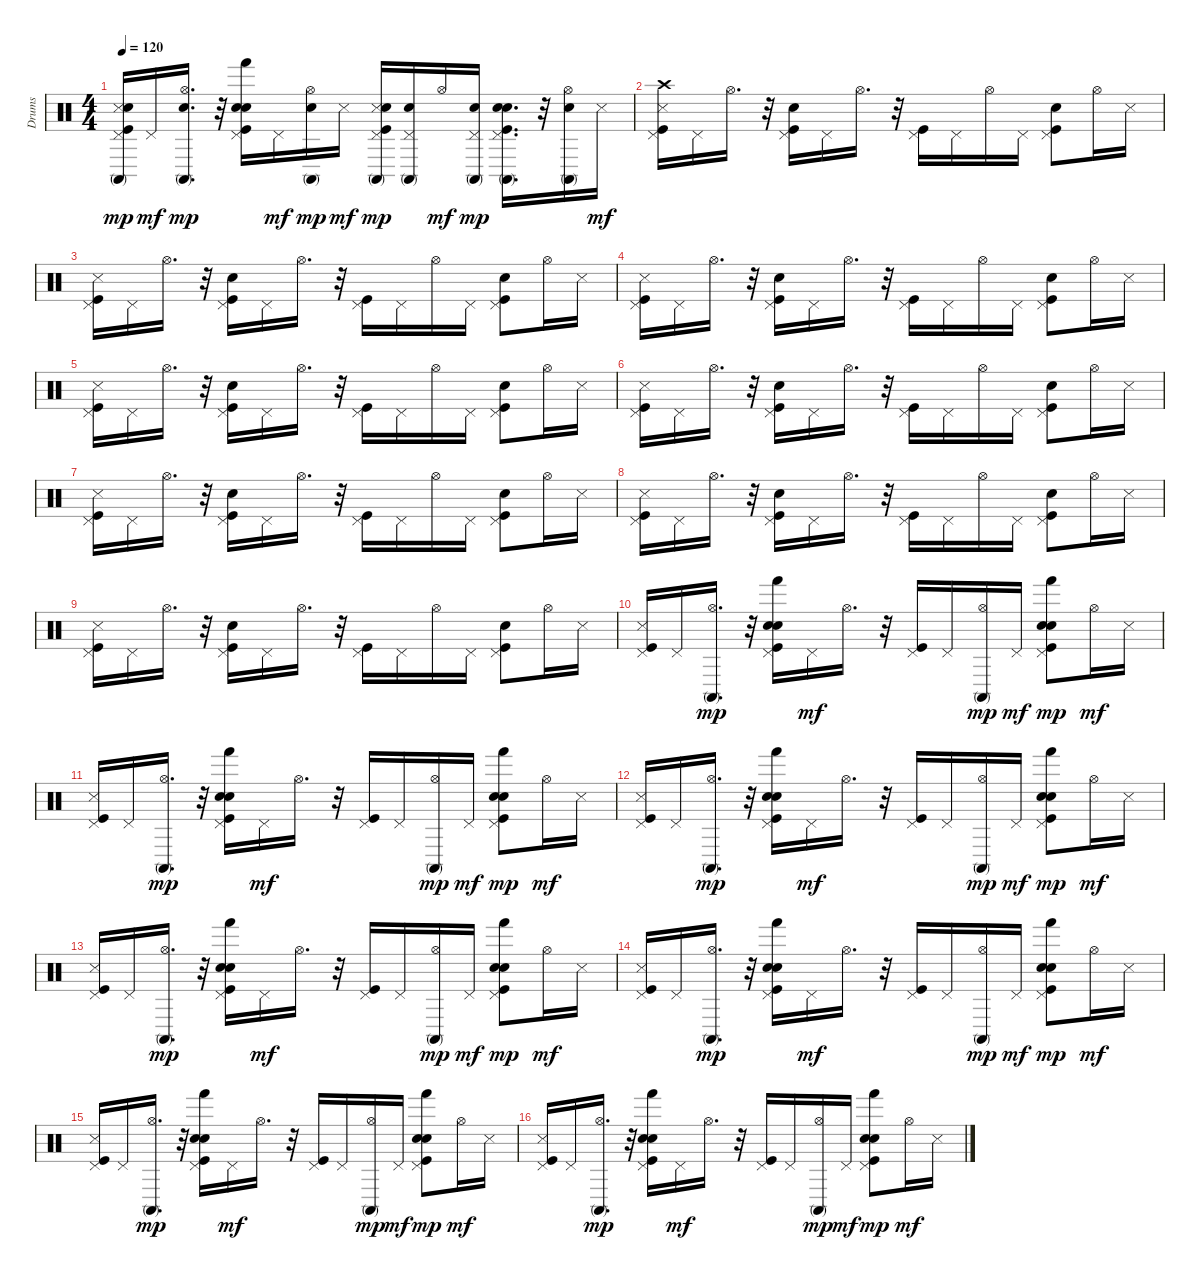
\track ("Drums" "Drums") {instrument percussion}
\staff {score}
\articulation defaults
\ts (4 4)
\tempo 120
\clef neutral
\ks c
("Snare (side stick) 3" "Pedal Hi-Hat (hit)" "Kick (hit)" "Snare (hit) 2" "Conga high (mute)").16{dy mp} "Pedal Hi-Hat (hit)".16{dy mf} ("Hi-Hat (open)" "Snare (hit) 2" "Conga high (mute)").16{d dy mp} r.32 ("Hand Clap (hit)" "Pedal Hi-Hat (hit)" "Kick (hit)" "Snare (hit) 2" "Hand (hit)").16 "Pedal Hi-Hat (hit)".16{dy mf} ("Hi-Hat (open)" "Snare (hit) 2" "Conga high (mute)").16{dy mp} "Snare (side stick) 3".16{dy mf} ("Snare (side stick) 3" "Pedal Hi-Hat (hit)" "Kick (hit)" "Snare (hit) 2" "Conga high (mute)").16{dy mp} ("Pedal Hi-Hat (hit)" "Snare (hit) 2" "Conga high (mute)").16 "Hi-Hat (open)".16{dy mf} ("Pedal Hi-Hat (hit)" "Snare (hit) 2" "Conga high (mute)").16{dy mp} ("Hand Clap (hit)" "Pedal Hi-Hat (hit)" "Kick (hit)" "Snare (hit) 2" "Conga high (mute)").16{d} r.32 ("Hi-Hat (open)" "Snare (hit) 2" "Conga high (mute)").16 "Snare (side stick) 3".16{dy mf} |
("Crash high (hit)" "Pedal Hi-Hat (hit)" "Snare (side stick) 3" "Kick (hit)").16 "Pedal Hi-Hat (hit)".16 "Hi-Hat (open)".16{d} r.32 ("Kick (hit)" "Pedal Hi-Hat (hit)" "Snare (hit) 2").16 "Pedal Hi-Hat (hit)".16 "Hi-Hat (open)".16{d} r.32 ("Kick (hit)" "Pedal Hi-Hat (hit)").16 "Pedal Hi-Hat (hit)".16 "Hi-Hat (open)".16 "Pedal Hi-Hat (hit)".16 ("Snare (hit) 2" "Kick (hit)" "Pedal Hi-Hat (hit)").8 "Hi-Hat (open)".16 "Snare (side stick) 3".16 |
("Snare (side stick) 3" "Pedal Hi-Hat (hit)" "Kick (hit)").16 "Pedal Hi-Hat (hit)".16 "Hi-Hat (open)".16{d} r.32 ("Pedal Hi-Hat (hit)" "Kick (hit)" "Snare (hit) 2").16 "Pedal Hi-Hat (hit)".16 "Hi-Hat (open)".16{d} r.32 ("Pedal Hi-Hat (hit)" "Kick (hit)").16 "Pedal Hi-Hat (hit)".16 "Hi-Hat (open)".16 "Pedal Hi-Hat (hit)".16 ("Pedal Hi-Hat (hit)" "Kick (hit)" "Snare (hit) 2").8 "Hi-Hat (open)".16 "Snare (side stick) 3".16 |
("Pedal Hi-Hat (hit)" "Snare (side stick) 3" "Kick (hit)").16 "Pedal Hi-Hat (hit)".16 "Hi-Hat (open)".16{d} r.32 ("Pedal Hi-Hat (hit)" "Kick (hit)" "Snare (hit) 2").16 "Pedal Hi-Hat (hit)".16 "Hi-Hat (open)".16{d} r.32 ("Pedal Hi-Hat (hit)" "Kick (hit)").16 "Pedal Hi-Hat (hit)".16 "Hi-Hat (open)".16 "Pedal Hi-Hat (hit)".16 ("Pedal Hi-Hat (hit)" "Kick (hit)" "Snare (hit) 2").8 "Hi-Hat (open)".16 "Snare (side stick) 3".16 |
("Pedal Hi-Hat (hit)" "Snare (side stick) 3" "Kick (hit)").16 "Pedal Hi-Hat (hit)".16 "Hi-Hat (open)".16{d} r.32 ("Pedal Hi-Hat (hit)" "Kick (hit)" "Snare (hit) 2").16 "Pedal Hi-Hat (hit)".16 "Hi-Hat (open)".16{d} r.32 ("Pedal Hi-Hat (hit)" "Kick (hit)").16 "Pedal Hi-Hat (hit)".16 "Hi-Hat (open)".16 "Pedal Hi-Hat (hit)".16 ("Pedal Hi-Hat (hit)" "Kick (hit)" "Snare (hit) 2").8 "Hi-Hat (open)".16 "Snare (side stick) 3".16 |
("Snare (side stick) 3" "Pedal Hi-Hat (hit)" "Kick (hit)").16 "Pedal Hi-Hat (hit)".16 "Hi-Hat (open)".16{d} r.32 ("Pedal Hi-Hat (hit)" "Kick (hit)" "Snare (hit) 2").16 "Pedal Hi-Hat (hit)".16 "Hi-Hat (open)".16{d} r.32 ("Pedal Hi-Hat (hit)" "Kick (hit)").16 "Pedal Hi-Hat (hit)".16 "Hi-Hat (open)".16 "Pedal Hi-Hat (hit)".16 ("Pedal Hi-Hat (hit)" "Snare (hit) 2" "Kick (hit)").8 "Hi-Hat (open)".16 "Snare (side stick) 3".16 |
("Pedal Hi-Hat (hit)" "Snare (side stick) 3" "Kick (hit)").16 "Pedal Hi-Hat (hit)".16 "Hi-Hat (open)".16{d} r.32 ("Pedal Hi-Hat (hit)" "Kick (hit)" "Snare (hit) 2").16 "Pedal Hi-Hat (hit)".16 "Hi-Hat (open)".16{d} r.32 ("Pedal Hi-Hat (hit)" "Kick (hit)").16 "Pedal Hi-Hat (hit)".16 "Hi-Hat (open)".16 "Pedal Hi-Hat (hit)".16 ("Pedal Hi-Hat (hit)" "Kick (hit)" "Snare (hit) 2").8 "Hi-Hat (open)".16 "Snare (side stick) 3".16 |
("Snare (side stick) 3" "Pedal Hi-Hat (hit)" "Kick (hit)").16 "Pedal Hi-Hat (hit)".16 "Hi-Hat (open)".16{d} r.32 ("Pedal Hi-Hat (hit)" "Kick (hit)" "Snare (hit) 2").16 "Pedal Hi-Hat (hit)".16 "Hi-Hat (open)".16{d} r.32 ("Pedal Hi-Hat (hit)" "Kick (hit)").16 "Pedal Hi-Hat (hit)".16 "Hi-Hat (open)".16 "Pedal Hi-Hat (hit)".16 ("Pedal Hi-Hat (hit)" "Kick (hit)" "Snare (hit) 2").8 "Hi-Hat (open)".16 "Snare (side stick) 3".16 |
("Pedal Hi-Hat (hit)" "Snare (side stick) 3" "Kick (hit)").16 "Pedal Hi-Hat (hit)".16 "Hi-Hat (open)".16{d} r.32 ("Pedal Hi-Hat (hit)" "Kick (hit)" "Snare (hit) 2").16 "Pedal Hi-Hat (hit)".16 "Hi-Hat (open)".16{d} r.32 ("Pedal Hi-Hat (hit)" "Kick (hit)").16 "Pedal Hi-Hat (hit)".16 "Hi-Hat (open)".16 "Pedal Hi-Hat (hit)".16 ("Pedal Hi-Hat (hit)" "Kick (hit)" "Snare (hit) 2").8 "Hi-Hat (open)".16 "Snare (side stick) 3".16 |
("Kick (hit)" "Snare (side stick) 3" "Pedal Hi-Hat (hit)").16 "Pedal Hi-Hat (hit)".16 ("Hi-Hat (open)" "Conga high (mute)").16{d dy mp} r.32 ("Kick (hit)" "Snare (hit) 2" "Hand Clap (hit)" "Pedal Hi-Hat (hit)" "Hand (hit)").16 "Pedal Hi-Hat (hit)".16{dy mf} "Hi-Hat (open)".16{d} r.32 ("Kick (hit)" "Pedal Hi-Hat (hit)").16 "Pedal Hi-Hat (hit)".16 ("Hi-Hat (open)" "Conga high (mute)").16{dy mp} "Pedal Hi-Hat (hit)".16{dy mf} ("Kick (hit)" "Snare (hit) 2" "Hand Clap (hit)" "Pedal Hi-Hat (hit)" "Hand (hit)").8{dy mp} "Hi-Hat (open)".16{dy mf} "Snare (side stick) 3".16 |
("Kick (hit)" "Pedal Hi-Hat (hit)" "Snare (side stick) 3").16 "Pedal Hi-Hat (hit)".16 ("Hi-Hat (open)" "Conga high (mute)").16{d dy mp} r.32 ("Snare (hit) 2" "Kick (hit)" "Hand Clap (hit)" "Pedal Hi-Hat (hit)" "Hand (hit)").16 "Pedal Hi-Hat (hit)".16{dy mf} "Hi-Hat (open)".16{d} r.32 ("Kick (hit)" "Pedal Hi-Hat (hit)").16 "Pedal Hi-Hat (hit)".16 ("Hi-Hat (open)" "Conga high (mute)").16{dy mp} "Pedal Hi-Hat (hit)".16{dy mf} ("Snare (hit) 2" "Kick (hit)" "Hand Clap (hit)" "Pedal Hi-Hat (hit)" "Hand (hit)").8{dy mp} "Hi-Hat (open)".16{dy mf} "Snare (side stick) 3".16 |
("Kick (hit)" "Snare (side stick) 3" "Pedal Hi-Hat (hit)").16 "Pedal Hi-Hat (hit)".16 ("Hi-Hat (open)" "Conga high (mute)").16{d dy mp} r.32 ("Kick (hit)" "Snare (hit) 2" "Hand Clap (hit)" "Pedal Hi-Hat (hit)" "Hand (hit)").16 "Pedal Hi-Hat (hit)".16{dy mf} "Hi-Hat (open)".16{d} r.32 ("Kick (hit)" "Pedal Hi-Hat (hit)").16 "Pedal Hi-Hat (hit)".16 ("Hi-Hat (open)" "Conga high (mute)").16{dy mp} "Pedal Hi-Hat (hit)".16{dy mf} ("Kick (hit)" "Snare (hit) 2" "Hand Clap (hit)" "Pedal Hi-Hat (hit)" "Hand (hit)").8{dy mp} "Hi-Hat (open)".16{dy mf} "Snare (side stick) 3".16 |
("Kick (hit)" "Pedal Hi-Hat (hit)" "Snare (side stick) 3").16 "Pedal Hi-Hat (hit)".16 ("Hi-Hat (open)" "Conga high (mute)").16{d dy mp} r.32 ("Snare (hit) 2" "Kick (hit)" "Hand Clap (hit)" "Pedal Hi-Hat (hit)" "Hand (hit)").16 "Pedal Hi-Hat (hit)".16{dy mf} "Hi-Hat (open)".16{d} r.32 ("Kick (hit)" "Pedal Hi-Hat (hit)").16 "Pedal Hi-Hat (hit)".16 ("Hi-Hat (open)" "Conga high (mute)").16{dy mp} "Pedal Hi-Hat (hit)".16{dy mf} ("Snare (hit) 2" "Kick (hit)" "Hand Clap (hit)" "Pedal Hi-Hat (hit)" "Hand (hit)").8{dy mp} "Hi-Hat (open)".16{dy mf} "Snare (side stick) 3".16 |
("Kick (hit)" "Snare (side stick) 3" "Pedal Hi-Hat (hit)").16 "Pedal Hi-Hat (hit)".16 ("Hi-Hat (open)" "Conga high (mute)").16{d dy mp} r.32 ("Kick (hit)" "Snare (hit) 2" "Hand Clap (hit)" "Pedal Hi-Hat (hit)" "Hand (hit)").16 "Pedal Hi-Hat (hit)".16{dy mf} "Hi-Hat (open)".16{d} r.32 ("Kick (hit)" "Pedal Hi-Hat (hit)").16 "Pedal Hi-Hat (hit)".16 ("Hi-Hat (open)" "Conga high (mute)").16{dy mp} "Pedal Hi-Hat (hit)".16{dy mf} ("Kick (hit)" "Snare (hit) 2" "Hand Clap (hit)" "Pedal Hi-Hat (hit)" "Hand (hit)").8{dy mp} "Hi-Hat (open)".16{dy mf} "Snare (side stick) 3".16 |
("Kick (hit)" "Pedal Hi-Hat (hit)" "Snare (side stick) 3").16 "Pedal Hi-Hat (hit)".16 ("Hi-Hat (open)" "Conga high (mute)").16{d dy mp} r.32 ("Snare (hit) 2" "Kick (hit)" "Hand Clap (hit)" "Pedal Hi-Hat (hit)" "Hand (hit)").16 "Pedal Hi-Hat (hit)".16{dy mf} "Hi-Hat (open)".16{d} r.32 ("Kick (hit)" "Pedal Hi-Hat (hit)").16 "Pedal Hi-Hat (hit)".16 ("Hi-Hat (open)" "Conga high (mute)").16{dy mp} "Pedal Hi-Hat (hit)".16{dy mf} ("Snare (hit) 2" "Kick (hit)" "Hand Clap (hit)" "Pedal Hi-Hat (hit)" "Hand (hit)").8{dy mp} "Hi-Hat (open)".16{dy mf} "Snare (side stick) 3".16 |
("Kick (hit)" "Snare (side stick) 3" "Pedal Hi-Hat (hit)").16 "Pedal Hi-Hat (hit)".16 ("Hi-Hat (open)" "Conga high (mute)").16{d dy mp} r.32 ("Kick (hit)" "Snare (hit) 2" "Hand Clap (hit)" "Pedal Hi-Hat (hit)" "Hand (hit)").16 "Pedal Hi-Hat (hit)".16{dy mf} "Hi-Hat (open)".16{d} r.32 ("Kick (hit)" "Pedal Hi-Hat (hit)").16 "Pedal Hi-Hat (hit)".16 ("Hi-Hat (open)" "Conga high (mute)").16{dy mp} "Pedal Hi-Hat (hit)".16{dy mf} ("Kick (hit)" "Snare (hit) 2" "Hand Clap (hit)" "Pedal Hi-Hat (hit)" "Hand (hit)").8{dy mp} "Hi-Hat (open)".16{dy mf} "Snare (side stick) 3".16
